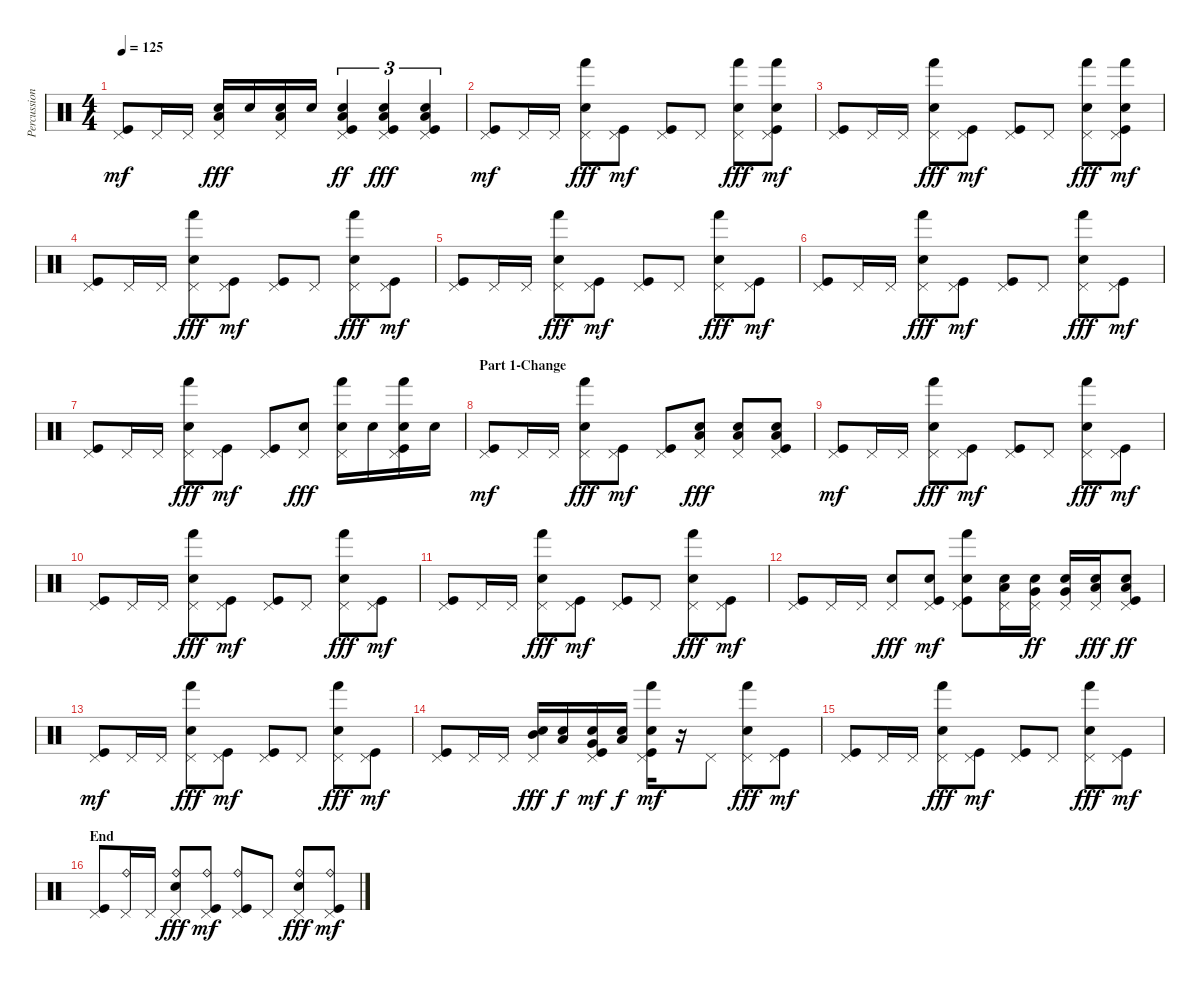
\track ("Percussion" "Percussion") {instrument percussion}
\staff {score}
\articulation defaults
\ts (4 4)
\tempo 125
\clef neutral
\ks c
("Pedal Hi-Hat (hit)" "Kick (hit)").8{dy mf} "Pedal Hi-Hat (hit)".16 "Pedal Hi-Hat (hit)".16 ("Pedal Hi-Hat (hit)" "Low Floor Tom (hit)" "Electric Snare (hit)").16{dy fff} "Electric Snare (hit)".16 ("Pedal Hi-Hat (hit)" "Low Floor Tom (hit)" "Electric Snare (hit)").16 "Electric Snare (hit)".16 ("Pedal Hi-Hat (hit)" "Low Floor Tom (hit)" "Electric Snare (hit)" "Kick (hit)").4{tu (3 2) dy ff} ("Pedal Hi-Hat (hit)" "Low Floor Tom (hit)" "Electric Snare (hit)" "Kick (hit)").4{tu (3 2) dy fff} ("Pedal Hi-Hat (hit)" "Low Floor Tom (hit)" "Electric Snare (hit)" "Kick (hit)").4{tu (3 2)} |
("Pedal Hi-Hat (hit)" "Kick (hit)").8{dy mf} "Pedal Hi-Hat (hit)".16 "Pedal Hi-Hat (hit)".16 ("Pedal Hi-Hat (hit)" "Hand (hit)" "Electric Snare (hit)").8{dy fff} ("Pedal Hi-Hat (hit)" "Kick (hit)").8{dy mf} ("Pedal Hi-Hat (hit)" "Kick (hit)").8 "Pedal Hi-Hat (hit)".8 ("Pedal Hi-Hat (hit)" "Hand (hit)" "Electric Snare (hit)").8{dy fff} ("Pedal Hi-Hat (hit)" "Hand (hit)" "Electric Snare (hit)" "Kick (hit)").8{dy mf} |
("Pedal Hi-Hat (hit)" "Kick (hit)").8 "Pedal Hi-Hat (hit)".16 "Pedal Hi-Hat (hit)".16 ("Pedal Hi-Hat (hit)" "Hand (hit)" "Electric Snare (hit)").8{dy fff} ("Pedal Hi-Hat (hit)" "Kick (hit)").8{dy mf} ("Pedal Hi-Hat (hit)" "Kick (hit)").8 "Pedal Hi-Hat (hit)".8 ("Pedal Hi-Hat (hit)" "Hand (hit)" "Electric Snare (hit)").8{dy fff} ("Pedal Hi-Hat (hit)" "Hand (hit)" "Electric Snare (hit)" "Kick (hit)").8{dy mf} |
("Pedal Hi-Hat (hit)" "Kick (hit)").8 "Pedal Hi-Hat (hit)".16 "Pedal Hi-Hat (hit)".16 ("Pedal Hi-Hat (hit)" "Hand (hit)" "Electric Snare (hit)").8{dy fff} ("Pedal Hi-Hat (hit)" "Kick (hit)").8{dy mf} ("Pedal Hi-Hat (hit)" "Kick (hit)").8 "Pedal Hi-Hat (hit)".8 ("Pedal Hi-Hat (hit)" "Hand (hit)" "Electric Snare (hit)").8{dy fff} ("Pedal Hi-Hat (hit)" "Kick (hit)").8{dy mf} |
("Pedal Hi-Hat (hit)" "Kick (hit)").8 "Pedal Hi-Hat (hit)".16 "Pedal Hi-Hat (hit)".16 ("Pedal Hi-Hat (hit)" "Hand (hit)" "Electric Snare (hit)").8{dy fff} ("Pedal Hi-Hat (hit)" "Kick (hit)").8{dy mf} ("Pedal Hi-Hat (hit)" "Kick (hit)").8 "Pedal Hi-Hat (hit)".8 ("Pedal Hi-Hat (hit)" "Hand (hit)" "Electric Snare (hit)").8{dy fff} ("Pedal Hi-Hat (hit)" "Kick (hit)").8{dy mf} |
("Pedal Hi-Hat (hit)" "Kick (hit)").8 "Pedal Hi-Hat (hit)".16 "Pedal Hi-Hat (hit)".16 ("Pedal Hi-Hat (hit)" "Hand (hit)" "Electric Snare (hit)").8{dy fff} ("Pedal Hi-Hat (hit)" "Kick (hit)").8{dy mf} ("Pedal Hi-Hat (hit)" "Kick (hit)").8 "Pedal Hi-Hat (hit)".8 ("Pedal Hi-Hat (hit)" "Hand (hit)" "Electric Snare (hit)").8{dy fff} ("Pedal Hi-Hat (hit)" "Kick (hit)").8{dy mf} |
("Pedal Hi-Hat (hit)" "Kick (hit)").8 "Pedal Hi-Hat (hit)".16 "Pedal Hi-Hat (hit)".16 ("Pedal Hi-Hat (hit)" "Hand (hit)" "Electric Snare (hit)").8{dy fff} ("Pedal Hi-Hat (hit)" "Kick (hit)").8{dy mf} ("Pedal Hi-Hat (hit)" "Kick (hit)").8 ("Pedal Hi-Hat (hit)" "Electric Snare (hit)").8{dy fff} ("Pedal Hi-Hat (hit)" "Hand (hit)" "Electric Snare (hit)").16 "Electric Snare (hit)".16 ("Pedal Hi-Hat (hit)" "Hand (hit)" "Electric Snare (hit)" "Kick (hit)").16 "Electric Snare (hit)".16 |
\section ("" "Part 1-Change ")
("Pedal Hi-Hat (hit)" "Kick (hit)").8{dy mf} "Pedal Hi-Hat (hit)".16 "Pedal Hi-Hat (hit)".16 ("Pedal Hi-Hat (hit)" "Hand (hit)" "Electric Snare (hit)").8{dy fff} ("Pedal Hi-Hat (hit)" "Kick (hit)").8{dy mf} ("Pedal Hi-Hat (hit)" "Kick (hit)").8 ("Pedal Hi-Hat (hit)" "Low Floor Tom (hit)" "Electric Snare (hit)").8{dy fff} ("Pedal Hi-Hat (hit)" "Low Floor Tom (hit)" "Electric Snare (hit)").8 ("Pedal Hi-Hat (hit)" "Low Floor Tom (hit)" "Electric Snare (hit)" "Kick (hit)").8 |
("Pedal Hi-Hat (hit)" "Kick (hit)").8{dy mf} "Pedal Hi-Hat (hit)".16 "Pedal Hi-Hat (hit)".16 ("Pedal Hi-Hat (hit)" "Hand (hit)" "Electric Snare (hit)").8{dy fff} ("Pedal Hi-Hat (hit)" "Kick (hit)").8{dy mf} ("Pedal Hi-Hat (hit)" "Kick (hit)").8 "Pedal Hi-Hat (hit)".8 ("Pedal Hi-Hat (hit)" "Hand (hit)" "Electric Snare (hit)").8{dy fff} ("Pedal Hi-Hat (hit)" "Kick (hit)").8{dy mf} |
("Pedal Hi-Hat (hit)" "Kick (hit)").8 "Pedal Hi-Hat (hit)".16 "Pedal Hi-Hat (hit)".16 ("Pedal Hi-Hat (hit)" "Hand (hit)" "Electric Snare (hit)").8{dy fff} ("Pedal Hi-Hat (hit)" "Kick (hit)").8{dy mf} ("Pedal Hi-Hat (hit)" "Kick (hit)").8 "Pedal Hi-Hat (hit)".8 ("Pedal Hi-Hat (hit)" "Hand (hit)" "Electric Snare (hit)").8{dy fff} ("Pedal Hi-Hat (hit)" "Kick (hit)").8{dy mf} |
("Pedal Hi-Hat (hit)" "Kick (hit)").8 "Pedal Hi-Hat (hit)".16 "Pedal Hi-Hat (hit)".16 ("Pedal Hi-Hat (hit)" "Hand (hit)" "Electric Snare (hit)").8{dy fff} ("Pedal Hi-Hat (hit)" "Kick (hit)").8{dy mf} ("Pedal Hi-Hat (hit)" "Kick (hit)").8 "Pedal Hi-Hat (hit)".8 ("Pedal Hi-Hat (hit)" "Hand (hit)" "Electric Snare (hit)").8{dy fff} ("Pedal Hi-Hat (hit)" "Kick (hit)").8{dy mf} |
("Pedal Hi-Hat (hit)" "Kick (hit)").8 "Pedal Hi-Hat (hit)".16 "Pedal Hi-Hat (hit)".16 ("Pedal Hi-Hat (hit)" "Electric Snare (hit)").8{dy fff} ("Pedal Hi-Hat (hit)" "Electric Snare (hit)" "Kick (hit)").8{dy mf} ("Pedal Hi-Hat (hit)" "Hand (hit)" "Electric Snare (hit)" "Kick (hit)").8 ("Pedal Hi-Hat (hit)" "Low Floor Tom (hit)" "Electric Snare (hit)").16 ("Pedal Hi-Hat (hit)" "Very Low Tom (hit)" "Electric Snare (hit)").16{dy ff} ("Pedal Hi-Hat (hit)" "Very Low Tom (hit)" "Electric Snare (hit)").16 ("Pedal Hi-Hat (hit)" "Low Floor Tom (hit)" "Electric Snare (hit)").16{dy fff} ("Pedal Hi-Hat (hit)" "Low Floor Tom (hit)" "Electric Snare (hit)" "Kick (hit)").8{dy ff} |
("Pedal Hi-Hat (hit)" "Kick (hit)").8{dy mf} "Pedal Hi-Hat (hit)".16 "Pedal Hi-Hat (hit)".16 ("Pedal Hi-Hat (hit)" "Hand (hit)" "Electric Snare (hit)").8{dy fff} ("Pedal Hi-Hat (hit)" "Kick (hit)").8{dy mf} ("Pedal Hi-Hat (hit)" "Kick (hit)").8 "Pedal Hi-Hat (hit)".8 ("Pedal Hi-Hat (hit)" "Hand (hit)" "Electric Snare (hit)").8{dy fff} ("Pedal Hi-Hat (hit)" "Kick (hit)").8{dy mf} |
("Pedal Hi-Hat (hit)" "Kick (hit)").8 "Pedal Hi-Hat (hit)".16 "Pedal Hi-Hat (hit)".16 ("Pedal Hi-Hat (hit)" "Mid Tom (hit)" "Electric Snare (hit)").16{dy fff} ("Low Tom (hit)" "Electric Snare (hit)").16{dy f} ("Pedal Hi-Hat (hit)" "Very Low Tom (hit)" "Electric Snare (hit)" "Kick (hit)").16{dy mf} ("Low Floor Tom (hit)" "Electric Snare (hit)").16{dy f} ("Pedal Hi-Hat (hit)" "Hand (hit)" "Electric Snare (hit)" "Kick (hit)").16{dy mf} r.16 "Pedal Hi-Hat (hit)".8 ("Pedal Hi-Hat (hit)" "Hand (hit)" "Electric Snare (hit)").8{dy fff} ("Pedal Hi-Hat (hit)" "Kick (hit)").8{dy mf} |
("Pedal Hi-Hat (hit)" "Kick (hit)").8 "Pedal Hi-Hat (hit)".16 "Pedal Hi-Hat (hit)".16 ("Pedal Hi-Hat (hit)" "Hand (hit)" "Electric Snare (hit)").8{dy fff} ("Pedal Hi-Hat (hit)" "Kick (hit)").8{dy mf} ("Pedal Hi-Hat (hit)" "Kick (hit)").8 "Pedal Hi-Hat (hit)".8 ("Pedal Hi-Hat (hit)" "Hand (hit)" "Electric Snare (hit)").8{dy fff} ("Pedal Hi-Hat (hit)" "Kick (hit)").8{dy mf} |
\section ("" "End")
("Pedal Hi-Hat (hit)" "Kick (hit)").8 ("Ride (bell)" "Pedal Hi-Hat (hit)").16 "Pedal Hi-Hat (hit)".16 ("Ride (bell)" "Pedal Hi-Hat (hit)" "Electric Snare (hit)").8{dy fff} ("Ride (bell)" "Pedal Hi-Hat (hit)" "Kick (hit)").8{dy mf} ("Ride (bell)" "Pedal Hi-Hat (hit)" "Kick (hit)").8 "Pedal Hi-Hat (hit)".8 ("Ride (bell)" "Pedal Hi-Hat (hit)" "Electric Snare (hit)").8{dy fff} ("Ride (bell)" "Pedal Hi-Hat (hit)" "Kick (hit)").8{dy mf}
